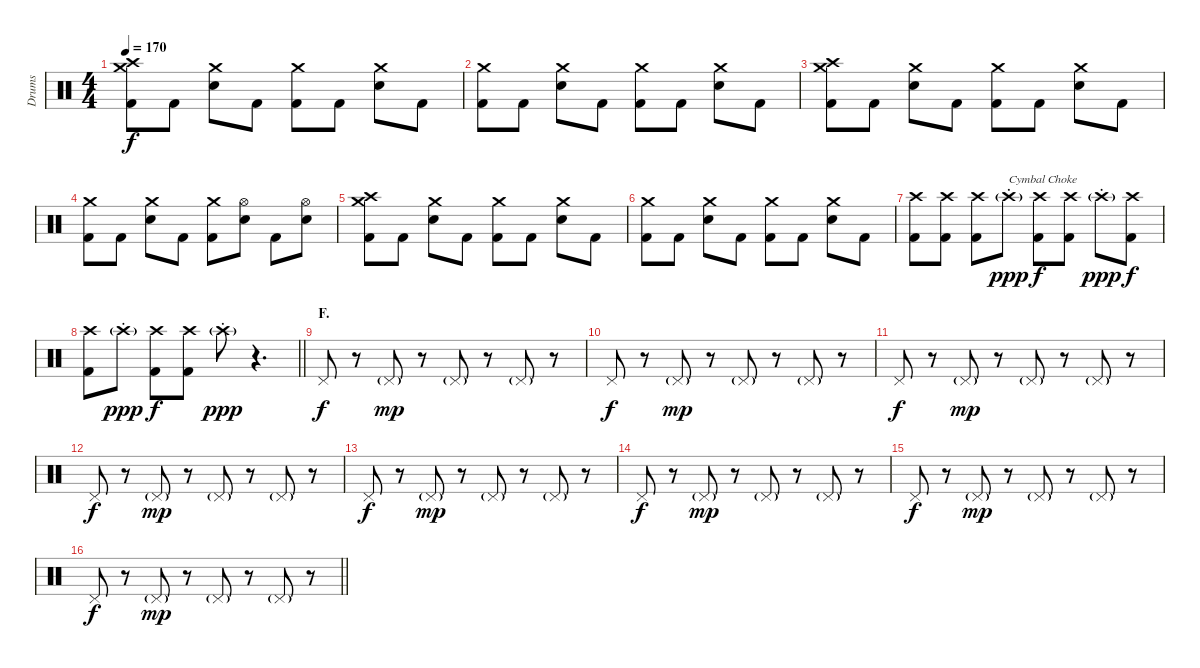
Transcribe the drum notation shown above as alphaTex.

\track ("Drums" "Drums") {instrument percussion}
\staff {score}
\articulation defaults
\ts (4 4)
\tempo 170
\clef neutral
\ks c
("Crash medium (hit)" "Crash high (hit)" "Kick (hit) 2").8{dy f} "Kick (hit) 2".8 ("Crash medium (hit)" "Electric Snare (hit)").8 "Kick (hit) 2".8 ("Crash medium (hit)" "Kick (hit) 2").8 "Kick (hit) 2".8 ("Crash medium (hit)" "Electric Snare (hit)").8 "Kick (hit) 2".8 |
("Crash medium (hit)" "Kick (hit) 2").8 "Kick (hit) 2".8 ("Crash medium (hit)" "Electric Snare (hit)").8 "Kick (hit) 2".8 ("Crash medium (hit)" "Kick (hit) 2").8 "Kick (hit) 2".8 ("Crash medium (hit)" "Electric Snare (hit)").8 "Kick (hit) 2".8 |
("Crash medium (hit)" "Crash high (hit)" "Kick (hit) 2").8 "Kick (hit) 2".8 ("Crash medium (hit)" "Electric Snare (hit)").8 "Kick (hit) 2".8 ("Crash medium (hit)" "Kick (hit) 2").8 "Kick (hit) 2".8 ("Crash medium (hit)" "Electric Snare (hit)").8 "Kick (hit) 2".8 |
("Crash medium (hit)" "Kick (hit) 2").8 "Kick (hit) 2".8 ("Crash medium (hit)" "Electric Snare (hit)").8 "Kick (hit) 2".8 ("Crash medium (hit)" "Kick (hit) 2").8 ("Hi-Hat (open)" "Electric Snare (hit)").8 "Kick (hit) 2".8 ("Hi-Hat (open)" "Electric Snare (hit)").8 |
("Crash medium (hit)" "Crash high (hit)" "Kick (hit) 2").8 "Kick (hit) 2".8 ("Crash medium (hit)" "Electric Snare (hit)").8 "Kick (hit) 2".8 ("Crash medium (hit)" "Kick (hit) 2").8 "Kick (hit) 2".8 ("Crash medium (hit)" "Electric Snare (hit)").8 "Kick (hit) 2".8 |
("Crash medium (hit)" "Kick (hit) 2").8 "Kick (hit) 2".8 ("Crash medium (hit)" "Electric Snare (hit)").8 "Kick (hit) 2".8 ("Crash medium (hit)" "Kick (hit) 2").8 "Kick (hit) 2".8 ("Crash medium (hit)" "Electric Snare (hit)").8 "Kick (hit) 2".8 |
("Crash high (hit)" "Kick (hit) 2").8 ("Crash high (hit)" "Kick (hit) 2").8 ("Crash high (hit)" "Kick (hit) 2").8 "Crash high (hit)"{g st}.8{txt "Cymbal Choke" dy ppp} ("Crash high (hit)" "Kick (hit) 2").8{dy f} ("Crash high (hit)" "Kick (hit) 2").8 "Crash high (hit)"{g st}.8{dy ppp} ("Crash high (hit)" "Kick (hit) 2").8{dy f} |
\barLineRight lightlight
("Crash high (hit)" "Kick (hit) 2").8 "Crash high (hit)"{g st}.8{dy ppp} ("Crash high (hit)" "Kick (hit) 2").8{dy f} ("Crash high (hit)" "Kick (hit) 2").8 "Crash high (hit)"{g st}.8{dy ppp} r.4{d} |
\section ("" "F.")
"Pedal Hi-Hat (hit)".8{dy f} r.8 "Pedal Hi-Hat (hit)"{g}.8{dy mp} r.8 "Pedal Hi-Hat (hit)"{g}.8 r.8 "Pedal Hi-Hat (hit)"{g}.8 r.8 |
"Pedal Hi-Hat (hit)".8{dy f} r.8 "Pedal Hi-Hat (hit)"{g}.8{dy mp} r.8 "Pedal Hi-Hat (hit)"{g}.8 r.8 "Pedal Hi-Hat (hit)"{g}.8 r.8 |
"Pedal Hi-Hat (hit)".8{dy f} r.8 "Pedal Hi-Hat (hit)"{g}.8{dy mp} r.8 "Pedal Hi-Hat (hit)"{g}.8 r.8 "Pedal Hi-Hat (hit)"{g}.8 r.8 |
"Pedal Hi-Hat (hit)".8{dy f} r.8 "Pedal Hi-Hat (hit)"{g}.8{dy mp} r.8 "Pedal Hi-Hat (hit)"{g}.8 r.8 "Pedal Hi-Hat (hit)"{g}.8 r.8 |
"Pedal Hi-Hat (hit)".8{dy f} r.8 "Pedal Hi-Hat (hit)"{g}.8{dy mp} r.8 "Pedal Hi-Hat (hit)"{g}.8 r.8 "Pedal Hi-Hat (hit)"{g}.8 r.8 |
"Pedal Hi-Hat (hit)".8{dy f} r.8 "Pedal Hi-Hat (hit)"{g}.8{dy mp} r.8 "Pedal Hi-Hat (hit)"{g}.8 r.8 "Pedal Hi-Hat (hit)"{g}.8 r.8 |
"Pedal Hi-Hat (hit)".8{dy f} r.8 "Pedal Hi-Hat (hit)"{g}.8{dy mp} r.8 "Pedal Hi-Hat (hit)"{g}.8 r.8 "Pedal Hi-Hat (hit)"{g}.8 r.8 |
\barLineRight lightlight "Pedal Hi-Hat (hit)".8{dy f}
r.8 "Pedal Hi-Hat (hit)"{g}.8{dy mp} r.8 "Pedal Hi-Hat (hit)"{g}.8 r.8 "Pedal Hi-Hat (hit)"{g}.8 r.8
